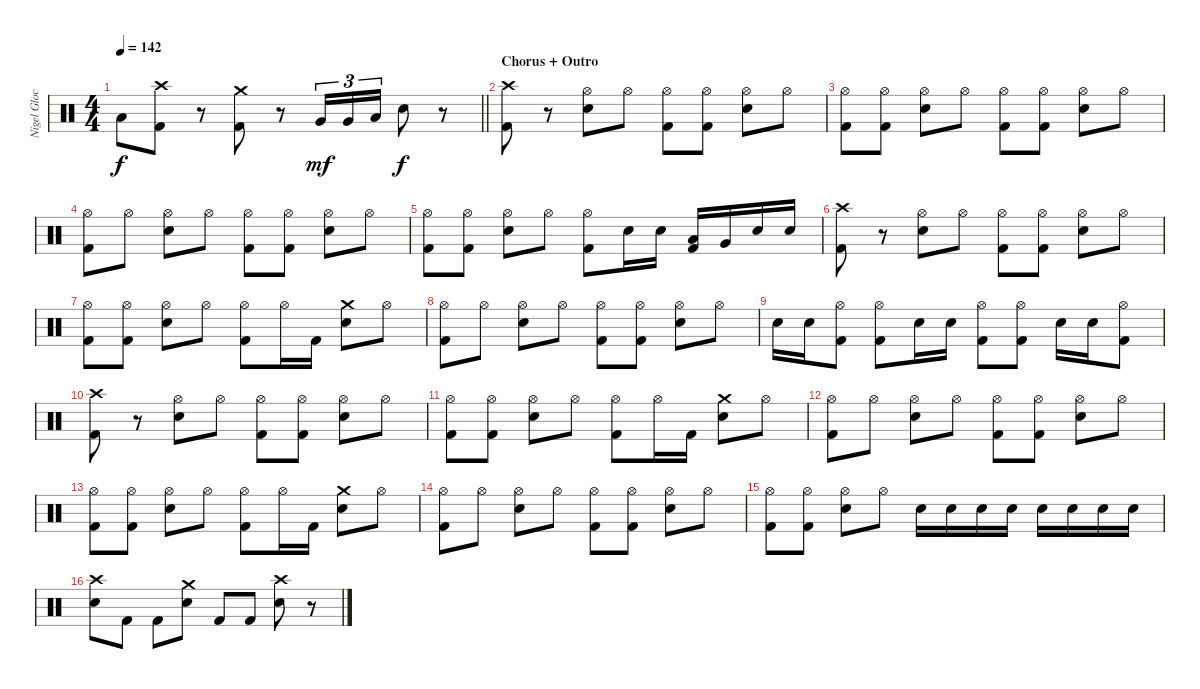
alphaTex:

\track ("Nigel Glockler (Drums)" "Nigel Gloc") {instrument percussion}
\staff {score}
\articulation defaults
\ts (4 4)
\tempo 142
\clef neutral
\barLineRight lightlight
\ks c "Low Floor Tom (hit)".8{dy f}
("Crash high (hit)" "Kick (hit) 2").8 r.8 ("Crash medium (hit)" "Kick (hit) 2").8 r.8 "Very Low Tom (hit)".16{tu (3 2) dy mf} "Very Low Tom (hit)".16{tu (3 2)} "Low Floor Tom (hit)".16{tu (3 2)} "Snare (hit) 2".8{dy f} r.8 |
\section ("" "Chorus + Outro")
("Crash high (hit)" "Kick (hit) 2").8 r.8 ("Hi-Hat (open)" "Snare (hit) 2").8 "Hi-Hat (open)".8 ("Hi-Hat (open)" "Kick (hit) 2").8 ("Hi-Hat (open)" "Kick (hit) 2").8 ("Hi-Hat (open)" "Snare (hit) 2").8 "Hi-Hat (open)".8 |
("Hi-Hat (open)" "Kick (hit) 2").8 ("Hi-Hat (open)" "Kick (hit) 2").8 ("Hi-Hat (open)" "Snare (hit) 2").8 "Hi-Hat (open)".8 ("Hi-Hat (open)" "Kick (hit) 2").8 ("Hi-Hat (open)" "Kick (hit) 2").8 ("Hi-Hat (open)" "Snare (hit) 2").8 "Hi-Hat (open)".8 |
("Hi-Hat (open)" "Kick (hit) 2").8 "Hi-Hat (open)".8 ("Hi-Hat (open)" "Snare (hit) 2").8 "Hi-Hat (open)".8 ("Hi-Hat (open)" "Kick (hit) 2").8 ("Hi-Hat (open)" "Kick (hit) 2").8 ("Hi-Hat (open)" "Snare (hit) 2").8 "Hi-Hat (open)".8 |
("Hi-Hat (open)" "Kick (hit) 2").8 ("Hi-Hat (open)" "Kick (hit) 2").8 ("Hi-Hat (open)" "Snare (hit) 2").8 "Hi-Hat (open)".8 ("Hi-Hat (open)" "Kick (hit) 2").8 "Snare (hit) 2".16 "Snare (hit) 2".16 ("Low Tom (hit)" "Kick (hit) 2").16 "Very Low Tom (hit)".16 "Snare (hit) 2".16 "Snare (hit) 2".16 |
("Crash high (hit)" "Kick (hit) 2").8 r.8 ("Hi-Hat (open)" "Snare (hit) 2").8 "Hi-Hat (open)".8 ("Hi-Hat (open)" "Kick (hit) 2").8 ("Hi-Hat (open)" "Kick (hit) 2").8 ("Hi-Hat (open)" "Snare (hit) 2").8 "Hi-Hat (open)".8 |
("Hi-Hat (open)" "Kick (hit) 2").8 ("Hi-Hat (open)" "Kick (hit) 2").8 ("Hi-Hat (open)" "Snare (hit) 2").8 "Hi-Hat (open)".8 ("Hi-Hat (open)" "Kick (hit) 2").8 "Hi-Hat (open)".16 "Kick (hit) 2".16 ("Crash medium (hit)" "Snare (hit) 2").8 "Hi-Hat (open)".8 |
("Hi-Hat (open)" "Kick (hit) 2").8 "Hi-Hat (open)".8 ("Hi-Hat (open)" "Snare (hit) 2").8 "Hi-Hat (open)".8 ("Hi-Hat (open)" "Kick (hit) 2").8 ("Hi-Hat (open)" "Kick (hit) 2").8 ("Hi-Hat (open)" "Snare (hit) 2").8 "Hi-Hat (open)".8 |
"Snare (hit) 2".16 "Snare (hit) 2".16 ("Hi-Hat (open)" "Kick (hit) 2").8 ("Hi-Hat (open)" "Kick (hit) 2").8 "Snare (hit) 2".16 "Snare (hit) 2".16 ("Hi-Hat (open)" "Kick (hit) 2").8 ("Hi-Hat (open)" "Kick (hit) 2").8 "Snare (hit) 2".16 "Snare (hit) 2".16 ("Hi-Hat (open)" "Kick (hit) 2").8 |
("Crash high (hit)" "Kick (hit) 2").8 r.8 ("Hi-Hat (open)" "Snare (hit) 2").8 "Hi-Hat (open)".8 ("Hi-Hat (open)" "Kick (hit) 2").8 ("Hi-Hat (open)" "Kick (hit) 2").8 ("Hi-Hat (open)" "Snare (hit) 2").8 "Hi-Hat (open)".8 |
("Hi-Hat (open)" "Kick (hit) 2").8 ("Hi-Hat (open)" "Kick (hit) 2").8 ("Hi-Hat (open)" "Snare (hit) 2").8 "Hi-Hat (open)".8 ("Hi-Hat (open)" "Kick (hit) 2").8 "Hi-Hat (open)".16 "Kick (hit) 2".16 ("Crash medium (hit)" "Snare (hit) 2").8 "Hi-Hat (open)".8 |
("Hi-Hat (open)" "Kick (hit) 2").8 "Hi-Hat (open)".8 ("Hi-Hat (open)" "Snare (hit) 2").8 "Hi-Hat (open)".8 ("Hi-Hat (open)" "Kick (hit) 2").8 ("Hi-Hat (open)" "Kick (hit) 2").8 ("Hi-Hat (open)" "Snare (hit) 2").8 "Hi-Hat (open)".8 |
("Hi-Hat (open)" "Kick (hit) 2").8 ("Hi-Hat (open)" "Kick (hit) 2").8 ("Hi-Hat (open)" "Snare (hit) 2").8 "Hi-Hat (open)".8 ("Hi-Hat (open)" "Kick (hit) 2").8 "Hi-Hat (open)".16 "Kick (hit) 2".16 ("Crash medium (hit)" "Snare (hit) 2").8 "Hi-Hat (open)".8 |
("Hi-Hat (open)" "Kick (hit) 2").8 "Hi-Hat (open)".8 ("Hi-Hat (open)" "Snare (hit) 2").8 "Hi-Hat (open)".8 ("Hi-Hat (open)" "Kick (hit) 2").8 ("Hi-Hat (open)" "Kick (hit) 2").8 ("Hi-Hat (open)" "Snare (hit) 2").8 "Hi-Hat (open)".8 |
("Hi-Hat (open)" "Kick (hit) 2").8 ("Hi-Hat (open)" "Kick (hit) 2").8 ("Hi-Hat (open)" "Snare (hit) 2").8 "Hi-Hat (open)".8 "Snare (hit) 2".16 "Snare (hit) 2".16 "Snare (hit) 2".16 "Snare (hit) 2".16 "Snare (hit) 2".16 "Snare (hit) 2".16 "Snare (hit) 2".16 "Snare (hit) 2".16 |
("Crash high (hit)" "Snare (hit) 2").8 "Kick (hit) 2".8 "Kick (hit) 2".8 ("Crash medium (hit)" "Snare (hit) 2").8 "Kick (hit) 2".8 "Kick (hit) 2".8 ("Crash high (hit)" "Snare (hit) 2").8 r.8
